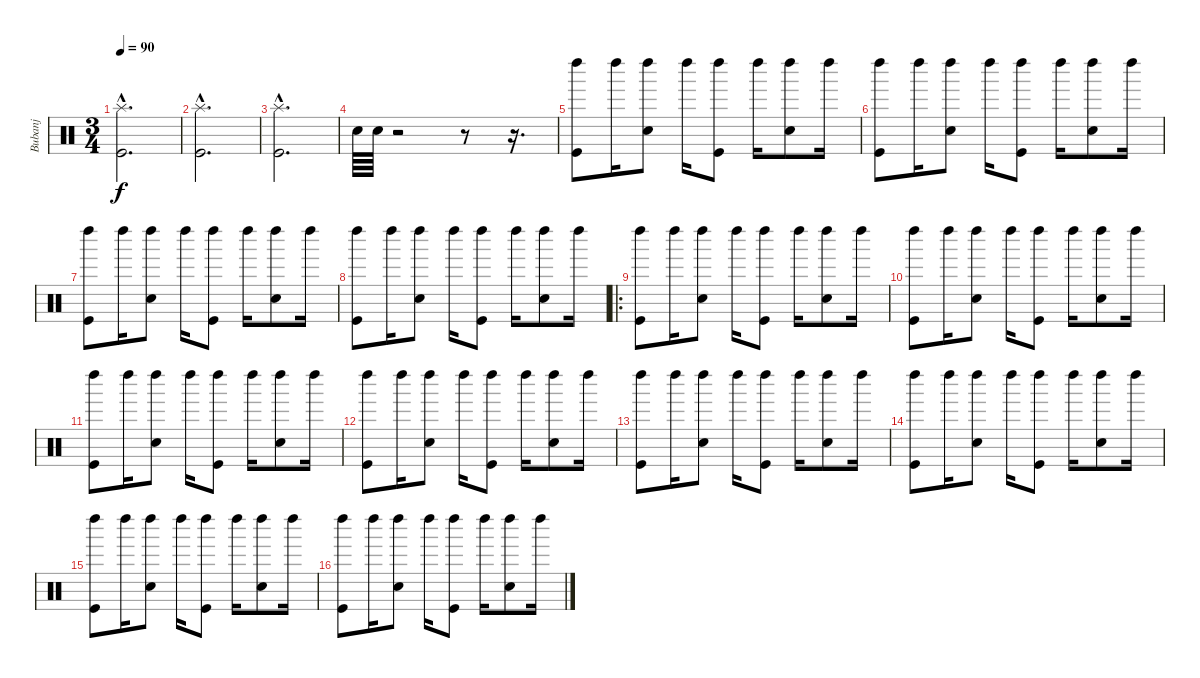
\track ("Bubanj" "Bubanj") {instrument percussion}
\staff {score}
\articulation defaults
\ts (3 4)
\tempo 90
\clef neutral
\ks c
("Splash (hit)"{hac} "Kick (hit)"{hac}).2{d dy f} |
("Splash (hit)"{hac} "Kick (hit)"{hac}).2{d} |
("Splash (hit)"{hac} "Kick (hit)"{hac}).2{d} |
"Snare (hit) 2".64 "Snare (hit) 2".64 r.2 r.8 r.16{d} |
("Left Maraca (hit)" "Kick (hit)").8 "Left Maraca (hit)".16 ("Left Maraca (hit)" "Snare (hit) 2").8 "Left Maraca (hit)".16 ("Left Maraca (hit)" "Kick (hit)").8 "Left Maraca (hit)".16 ("Left Maraca (hit)" "Snare (hit) 2").8 "Left Maraca (hit)".16 |
("Left Maraca (hit)" "Kick (hit)").8 "Left Maraca (hit)".16 ("Left Maraca (hit)" "Snare (hit) 2").8 "Left Maraca (hit)".16 ("Left Maraca (hit)" "Kick (hit)").8 "Left Maraca (hit)".16 ("Left Maraca (hit)" "Snare (hit) 2").8 "Left Maraca (hit)".16 |
("Left Maraca (hit)" "Kick (hit)").8 "Left Maraca (hit)".16 ("Left Maraca (hit)" "Snare (hit) 2").8 "Left Maraca (hit)".16 ("Left Maraca (hit)" "Kick (hit)").8 "Left Maraca (hit)".16 ("Left Maraca (hit)" "Snare (hit) 2").8 "Left Maraca (hit)".16 |
("Left Maraca (hit)" "Kick (hit)").8 "Left Maraca (hit)".16 ("Left Maraca (hit)" "Snare (hit) 2").8 "Left Maraca (hit)".16 ("Left Maraca (hit)" "Kick (hit)").8 "Left Maraca (hit)".16 ("Left Maraca (hit)" "Snare (hit) 2").8 "Left Maraca (hit)".16 |
\ro
("Left Maraca (hit)" "Kick (hit)").8 "Left Maraca (hit)".16 ("Left Maraca (hit)" "Snare (hit) 2").8 "Left Maraca (hit)".16 ("Left Maraca (hit)" "Kick (hit)").8 "Left Maraca (hit)".16 ("Left Maraca (hit)" "Snare (hit) 2").8 "Left Maraca (hit)".16 |
("Left Maraca (hit)" "Kick (hit)").8 "Left Maraca (hit)".16 ("Left Maraca (hit)" "Snare (hit) 2").8 "Left Maraca (hit)".16 ("Left Maraca (hit)" "Kick (hit)").8 "Left Maraca (hit)".16 ("Left Maraca (hit)" "Snare (hit) 2").8 "Left Maraca (hit)".16 |
("Left Maraca (hit)" "Kick (hit)").8 "Left Maraca (hit)".16 ("Left Maraca (hit)" "Snare (hit) 2").8 "Left Maraca (hit)".16 ("Left Maraca (hit)" "Kick (hit)").8 "Left Maraca (hit)".16 ("Left Maraca (hit)" "Snare (hit) 2").8 "Left Maraca (hit)".16 |
("Left Maraca (hit)" "Kick (hit)").8 "Left Maraca (hit)".16 ("Left Maraca (hit)" "Snare (hit) 2").8 "Left Maraca (hit)".16 ("Left Maraca (hit)" "Kick (hit)").8 "Left Maraca (hit)".16 ("Left Maraca (hit)" "Snare (hit) 2").8 "Left Maraca (hit)".16 |
("Left Maraca (hit)" "Kick (hit)").8 "Left Maraca (hit)".16 ("Left Maraca (hit)" "Snare (hit) 2").8 "Left Maraca (hit)".16 ("Left Maraca (hit)" "Kick (hit)").8 "Left Maraca (hit)".16 ("Left Maraca (hit)" "Snare (hit) 2").8 "Left Maraca (hit)".16 |
("Left Maraca (hit)" "Kick (hit)").8 "Left Maraca (hit)".16 ("Left Maraca (hit)" "Snare (hit) 2").8 "Left Maraca (hit)".16 ("Left Maraca (hit)" "Kick (hit)").8 "Left Maraca (hit)".16 ("Left Maraca (hit)" "Snare (hit) 2").8 "Left Maraca (hit)".16 |
("Left Maraca (hit)" "Kick (hit)").8 "Left Maraca (hit)".16 ("Left Maraca (hit)" "Snare (hit) 2").8 "Left Maraca (hit)".16 ("Left Maraca (hit)" "Kick (hit)").8 "Left Maraca (hit)".16 ("Left Maraca (hit)" "Snare (hit) 2").8 "Left Maraca (hit)".16 |
("Left Maraca (hit)" "Kick (hit)").8 "Left Maraca (hit)".16 ("Left Maraca (hit)" "Snare (hit) 2").8 "Left Maraca (hit)".16 ("Left Maraca (hit)" "Kick (hit)").8 "Left Maraca (hit)".16 ("Left Maraca (hit)" "Snare (hit) 2").8 "Left Maraca (hit)".16
